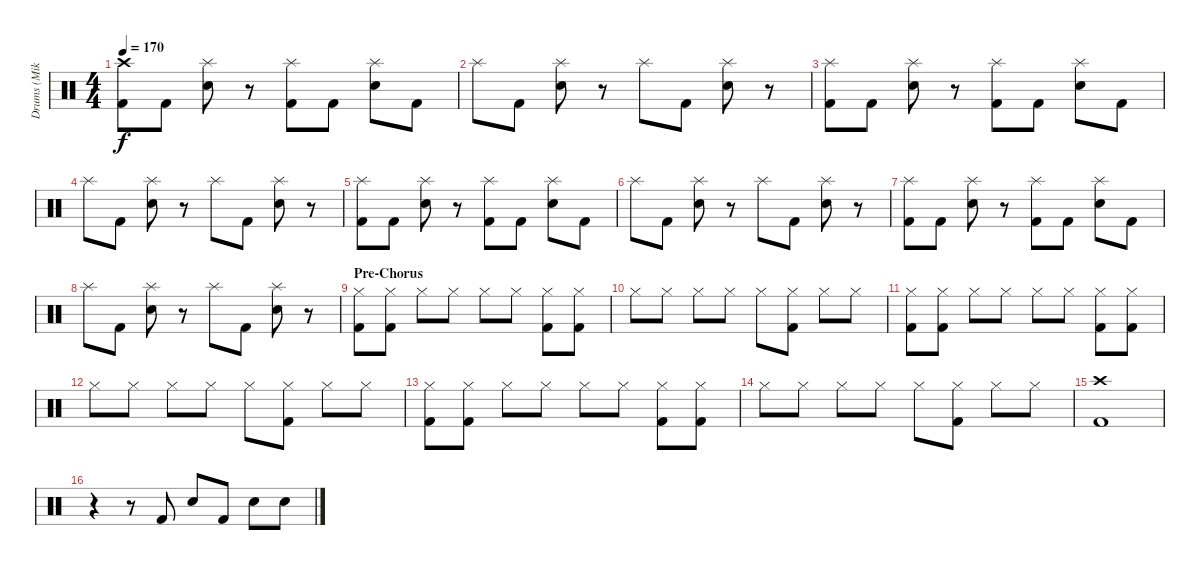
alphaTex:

\track ("Drums (Mike C)" "Drums (Mik") {instrument percussion}
\staff {score}
\articulation defaults
\ts (4 4)
\tempo 170
\clef neutral
\ks c
("Crash high (hit)" "Kick (hit) 2").8{dy f} "Kick (hit) 2".8 ("Splash (hit)" "Snare (hit) 2").8 r.8 ("Splash (hit)" "Kick (hit) 2").8 "Kick (hit) 2".8 ("Splash (hit)" "Snare (hit) 2").8 "Kick (hit) 2".8 |
"Splash (hit)".8 "Kick (hit) 2".8 ("Splash (hit)" "Snare (hit) 2").8 r.8 "Splash (hit)".8 "Kick (hit) 2".8 ("Splash (hit)" "Snare (hit) 2").8 r.8 |
("Splash (hit)" "Kick (hit) 2").8 "Kick (hit) 2".8 ("Splash (hit)" "Snare (hit) 2").8 r.8 ("Splash (hit)" "Kick (hit) 2").8 "Kick (hit) 2".8 ("Splash (hit)" "Snare (hit) 2").8 "Kick (hit) 2".8 |
"Splash (hit)".8 "Kick (hit) 2".8 ("Splash (hit)" "Snare (hit) 2").8 r.8 "Splash (hit)".8 "Kick (hit) 2".8 ("Splash (hit)" "Snare (hit) 2").8 r.8 |
("Splash (hit)" "Kick (hit) 2").8 "Kick (hit) 2".8 ("Splash (hit)" "Snare (hit) 2").8 r.8 ("Splash (hit)" "Kick (hit) 2").8 "Kick (hit) 2".8 ("Splash (hit)" "Snare (hit) 2").8 "Kick (hit) 2".8 |
"Splash (hit)".8 "Kick (hit) 2".8 ("Splash (hit)" "Snare (hit) 2").8 r.8 "Splash (hit)".8 "Kick (hit) 2".8 ("Splash (hit)" "Snare (hit) 2").8 r.8 |
("Splash (hit)" "Kick (hit) 2").8 "Kick (hit) 2".8 ("Splash (hit)" "Snare (hit) 2").8 r.8 ("Splash (hit)" "Kick (hit) 2").8 "Kick (hit) 2".8 ("Splash (hit)" "Snare (hit) 2").8 "Kick (hit) 2".8 |
"Splash (hit)".8 "Kick (hit) 2".8 ("Splash (hit)" "Snare (hit) 2").8 r.8 "Splash (hit)".8 "Kick (hit) 2".8 ("Splash (hit)" "Snare (hit) 2").8 r.8 |
\section ("" "Pre-Chorus")
("Hi-Hat (closed)" "Kick (hit) 2").8 ("Hi-Hat (closed)" "Kick (hit) 2").8 "Hi-Hat (closed)".8 "Hi-Hat (closed)".8 "Hi-Hat (closed)".8 "Hi-Hat (closed)".8 ("Hi-Hat (closed)" "Kick (hit) 2").8 ("Hi-Hat (closed)" "Kick (hit) 2").8 |
"Hi-Hat (closed)".8 "Hi-Hat (closed)".8 "Hi-Hat (closed)".8 "Hi-Hat (closed)".8 "Hi-Hat (closed)".8 ("Hi-Hat (closed)" "Kick (hit) 2").8 "Hi-Hat (closed)".8 "Hi-Hat (closed)".8 |
("Hi-Hat (closed)" "Kick (hit) 2").8 ("Hi-Hat (closed)" "Kick (hit) 2").8 "Hi-Hat (closed)".8 "Hi-Hat (closed)".8 "Hi-Hat (closed)".8 "Hi-Hat (closed)".8 ("Hi-Hat (closed)" "Kick (hit) 2").8 ("Hi-Hat (closed)" "Kick (hit) 2").8 |
"Hi-Hat (closed)".8 "Hi-Hat (closed)".8 "Hi-Hat (closed)".8 "Hi-Hat (closed)".8 "Hi-Hat (closed)".8 ("Hi-Hat (closed)" "Kick (hit) 2").8 "Hi-Hat (closed)".8 "Hi-Hat (closed)".8 |
("Hi-Hat (closed)" "Kick (hit) 2").8 ("Hi-Hat (closed)" "Kick (hit) 2").8 "Hi-Hat (closed)".8 "Hi-Hat (closed)".8 "Hi-Hat (closed)".8 "Hi-Hat (closed)".8 ("Hi-Hat (closed)" "Kick (hit) 2").8 ("Hi-Hat (closed)" "Kick (hit) 2").8 |
"Hi-Hat (closed)".8 "Hi-Hat (closed)".8 "Hi-Hat (closed)".8 "Hi-Hat (closed)".8 "Hi-Hat (closed)".8 ("Hi-Hat (closed)" "Kick (hit) 2").8 "Hi-Hat (closed)".8 "Hi-Hat (closed)".8 |
("Crash high (hit)" "Kick (hit) 2").1 |
r.4 r.8 "Kick (hit) 2".8 "Snare (hit) 2".8 "Kick (hit) 2".8 "Snare (hit) 2".8 "Snare (hit) 2".8
